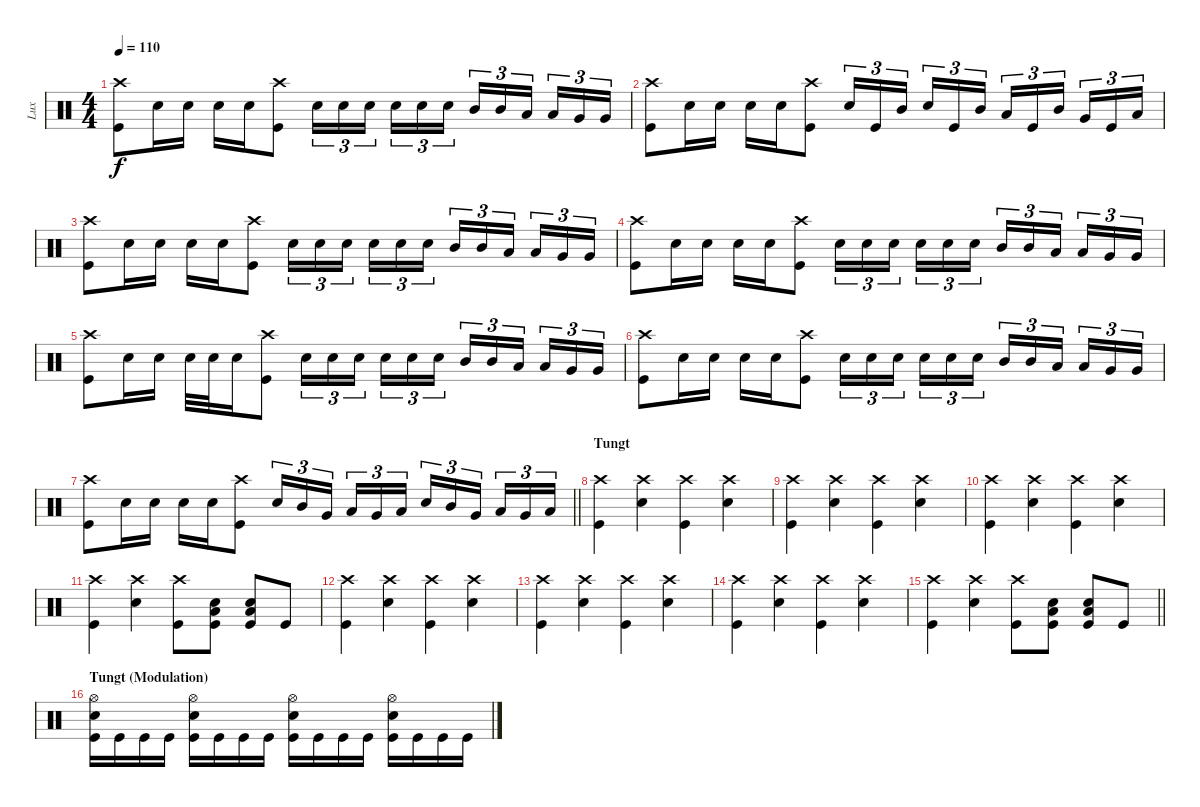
\track ("Lux" "Lux") {instrument percussion}
\staff {score}
\articulation defaults
\ts (4 4)
\tempo 110
\clef neutral
\ks c
("Crash high (hit)" "Kick (hit)").8{dy f} "Snare (hit) 2".16 "Snare (hit) 2".16 "Snare (hit) 2".16 "Snare (hit) 2".16 ("Crash high (hit)" "Kick (hit)").8 "Snare (hit) 2".16{tu (3 2)} "Snare (hit) 2".16{tu (3 2)} "Snare (hit) 2".16{tu (3 2) beam splitsecondary} "Snare (hit) 2".16{tu (3 2)} "Snare (hit) 2".16{tu (3 2)} "Snare (hit) 2".16{tu (3 2)} "Mid Tom (hit)".16{tu (3 2)} "Mid Tom (hit)".16{tu (3 2)} "Low Tom (hit)".16{tu (3 2) beam splitsecondary} "Low Tom (hit)".16{tu (3 2)} "Very Low Tom (hit)".16{tu (3 2)} "Very Low Tom (hit)".16{tu (3 2)} |
("Crash high (hit)" "Kick (hit)").8 "Snare (hit) 2".16 "Snare (hit) 2".16 "Snare (hit) 2".16 "Snare (hit) 2".16 ("Crash high (hit)" "Kick (hit)").8 "Snare (hit) 2".16{tu (3 2)} "Kick (hit)".16{tu (3 2)} "Mid Tom (hit)".16{tu (3 2) beam splitsecondary} "Snare (hit) 2".16{tu (3 2)} "Kick (hit)".16{tu (3 2)} "Mid Tom (hit)".16{tu (3 2)} "Low Tom (hit)".16{tu (3 2)} "Kick (hit)".16{tu (3 2)} "Mid Tom (hit)".16{tu (3 2) beam splitsecondary} "Very Low Tom (hit)".16{tu (3 2)} "Kick (hit)".16{tu (3 2)} "Low Tom (hit)".16{tu (3 2)} |
("Crash high (hit)" "Kick (hit)").8 "Snare (hit) 2".16 "Snare (hit) 2".16 "Snare (hit) 2".16 "Snare (hit) 2".16 ("Crash high (hit)" "Kick (hit)").8 "Snare (hit) 2".16{tu (3 2)} "Snare (hit) 2".16{tu (3 2)} "Snare (hit) 2".16{tu (3 2) beam splitsecondary} "Snare (hit) 2".16{tu (3 2)} "Snare (hit) 2".16{tu (3 2)} "Snare (hit) 2".16{tu (3 2)} "Mid Tom (hit)".16{tu (3 2)} "Mid Tom (hit)".16{tu (3 2)} "Low Tom (hit)".16{tu (3 2) beam splitsecondary} "Low Tom (hit)".16{tu (3 2)} "Very Low Tom (hit)".16{tu (3 2)} "Very Low Tom (hit)".16{tu (3 2)} |
("Crash high (hit)" "Kick (hit)").8 "Snare (hit) 2".16 "Snare (hit) 2".16 "Snare (hit) 2".16 "Snare (hit) 2".16 ("Crash high (hit)" "Kick (hit)").8 "Snare (hit) 2".16{tu (3 2)} "Snare (hit) 2".16{tu (3 2)} "Snare (hit) 2".16{tu (3 2) beam splitsecondary} "Snare (hit) 2".16{tu (3 2)} "Snare (hit) 2".16{tu (3 2)} "Snare (hit) 2".16{tu (3 2)} "Mid Tom (hit)".16{tu (3 2)} "Mid Tom (hit)".16{tu (3 2)} "Low Tom (hit)".16{tu (3 2) beam splitsecondary} "Low Tom (hit)".16{tu (3 2)} "Very Low Tom (hit)".16{tu (3 2)} "Very Low Tom (hit)".16{tu (3 2)} |
("Crash high (hit)" "Kick (hit)").8 "Snare (hit) 2".16 "Snare (hit) 2".16 "Snare (hit) 2".32 "Snare (hit) 2".32 "Snare (hit) 2".16 ("Crash high (hit)" "Kick (hit)").8 "Snare (hit) 2".16{tu (3 2)} "Snare (hit) 2".16{tu (3 2)} "Snare (hit) 2".16{tu (3 2) beam splitsecondary} "Snare (hit) 2".16{tu (3 2)} "Snare (hit) 2".16{tu (3 2)} "Snare (hit) 2".16{tu (3 2)} "Mid Tom (hit)".16{tu (3 2)} "Mid Tom (hit)".16{tu (3 2)} "Low Tom (hit)".16{tu (3 2) beam splitsecondary} "Low Tom (hit)".16{tu (3 2)} "Very Low Tom (hit)".16{tu (3 2)} "Very Low Tom (hit)".16{tu (3 2)} |
("Crash high (hit)" "Kick (hit)").8 "Snare (hit) 2".16 "Snare (hit) 2".16 "Snare (hit) 2".16 "Snare (hit) 2".16 ("Crash high (hit)" "Kick (hit)").8 "Snare (hit) 2".16{tu (3 2)} "Snare (hit) 2".16{tu (3 2)} "Snare (hit) 2".16{tu (3 2) beam splitsecondary} "Snare (hit) 2".16{tu (3 2)} "Snare (hit) 2".16{tu (3 2)} "Snare (hit) 2".16{tu (3 2)} "Mid Tom (hit)".16{tu (3 2)} "Mid Tom (hit)".16{tu (3 2)} "Low Tom (hit)".16{tu (3 2) beam splitsecondary} "Low Tom (hit)".16{tu (3 2)} "Very Low Tom (hit)".16{tu (3 2)} "Very Low Tom (hit)".16{tu (3 2)} |
\barLineRight lightlight
("Crash high (hit)" "Kick (hit)").8 "Snare (hit) 2".16 "Snare (hit) 2".16 "Snare (hit) 2".16 "Snare (hit) 2".16 ("Crash high (hit)" "Kick (hit)").8 "Snare (hit) 2".16{tu (3 2)} "Mid Tom (hit)".16{tu (3 2)} "Very Low Tom (hit)".16{tu (3 2) beam splitsecondary} "Low Tom (hit)".16{tu (3 2)} "Very Low Tom (hit)".16{tu (3 2)} "Low Tom (hit)".16{tu (3 2)} "Snare (hit) 2".16{tu (3 2)} "Mid Tom (hit)".16{tu (3 2)} "Very Low Tom (hit)".16{tu (3 2) beam splitsecondary} "Low Tom (hit)".16{tu (3 2)} "Very Low Tom (hit)".16{tu (3 2)} "Low Tom (hit)".16{tu (3 2)} |
\section ("" "Tungt")
("Crash high (hit)" "Kick (hit)").4 ("Crash high (hit)" "Snare (hit) 2").4 ("Crash high (hit)" "Kick (hit)").4 ("Crash high (hit)" "Snare (hit) 2").4 |
("Crash high (hit)" "Kick (hit)").4 ("Crash high (hit)" "Snare (hit) 2").4 ("Crash high (hit)" "Kick (hit)").4 ("Crash high (hit)" "Snare (hit) 2").4 |
("Crash high (hit)" "Kick (hit)").4 ("Crash high (hit)" "Snare (hit) 2").4 ("Crash high (hit)" "Kick (hit)").4 ("Crash high (hit)" "Snare (hit) 2").4 |
("Crash high (hit)" "Kick (hit)").4 ("Crash high (hit)" "Snare (hit) 2").4 ("Crash high (hit)" "Kick (hit)").8 ("Snare (hit) 2" "Low Tom (hit)" "Kick (hit)").8 ("Snare (hit) 2" "Low Tom (hit)" "Kick (hit)").8 "Kick (hit)".8 |
("Crash high (hit)" "Kick (hit)").4 ("Crash high (hit)" "Snare (hit) 2").4 ("Crash high (hit)" "Kick (hit)").4 ("Crash high (hit)" "Snare (hit) 2").4 |
("Crash high (hit)" "Kick (hit)").4 ("Crash high (hit)" "Snare (hit) 2").4 ("Crash high (hit)" "Kick (hit)").4 ("Crash high (hit)" "Snare (hit) 2").4 |
("Crash high (hit)" "Kick (hit)").4 ("Crash high (hit)" "Snare (hit) 2").4 ("Crash high (hit)" "Kick (hit)").4 ("Crash high (hit)" "Snare (hit) 2").4 |
\barLineRight lightlight
("Crash high (hit)" "Kick (hit)").4 ("Crash high (hit)" "Snare (hit) 2").4 ("Crash high (hit)" "Kick (hit)").8 ("Snare (hit) 2" "Low Tom (hit)" "Kick (hit)").8 ("Snare (hit) 2" "Low Tom (hit)" "Kick (hit)").8 "Kick (hit)".8 |
\section ("" "Tungt (Modulation)")
("Hi-Hat (open)" "Snare (hit) 2" "Kick (hit)").16 "Kick (hit)".16 "Kick (hit)".16 "Kick (hit)".16 ("Hi-Hat (open)" "Snare (hit) 2" "Kick (hit)").16 "Kick (hit)".16 "Kick (hit)".16 "Kick (hit)".16 ("Hi-Hat (open)" "Snare (hit) 2" "Kick (hit)").16 "Kick (hit)".16 "Kick (hit)".16 "Kick (hit)".16 ("Hi-Hat (open)" "Snare (hit) 2" "Kick (hit)").16 "Kick (hit)".16 "Kick (hit)".16 "Kick (hit)".16
